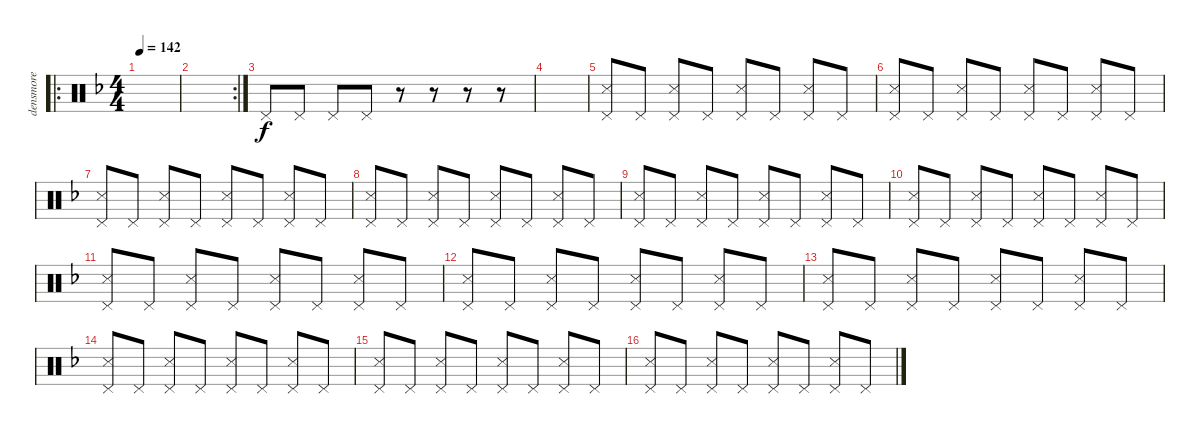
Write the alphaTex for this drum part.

\track ("densmore" "densmore") {instrument percussion}
\staff {score}
\articulation defaults
\ro
\ts (4 4)
\tempo 142
\clef neutral
\ks f
|
\rc 2
|
"Pedal Hi-Hat (hit)".8 "Pedal Hi-Hat (hit)".8 "Pedal Hi-Hat (hit)".8 "Pedal Hi-Hat (hit)".8 r.8 r.8 r.8 r.8 |
|
("Pedal Hi-Hat (hit)" "Snare (side stick) 3").8 "Pedal Hi-Hat (hit)".8 ("Pedal Hi-Hat (hit)" "Snare (side stick) 3").8 "Pedal Hi-Hat (hit)".8 ("Pedal Hi-Hat (hit)" "Snare (side stick) 3").8 "Pedal Hi-Hat (hit)".8 ("Pedal Hi-Hat (hit)" "Snare (side stick) 3").8 "Pedal Hi-Hat (hit)".8 |
("Pedal Hi-Hat (hit)" "Snare (side stick) 3").8 "Pedal Hi-Hat (hit)".8 ("Pedal Hi-Hat (hit)" "Snare (side stick) 3").8 "Pedal Hi-Hat (hit)".8 ("Pedal Hi-Hat (hit)" "Snare (side stick) 3").8 "Pedal Hi-Hat (hit)".8 ("Pedal Hi-Hat (hit)" "Snare (side stick) 3").8 "Pedal Hi-Hat (hit)".8 |
("Pedal Hi-Hat (hit)" "Snare (side stick) 3").8 "Pedal Hi-Hat (hit)".8 ("Pedal Hi-Hat (hit)" "Snare (side stick) 3").8 "Pedal Hi-Hat (hit)".8 ("Pedal Hi-Hat (hit)" "Snare (side stick) 3").8 "Pedal Hi-Hat (hit)".8 ("Pedal Hi-Hat (hit)" "Snare (side stick) 3").8 "Pedal Hi-Hat (hit)".8 |
("Pedal Hi-Hat (hit)" "Snare (side stick) 3").8 "Pedal Hi-Hat (hit)".8 ("Pedal Hi-Hat (hit)" "Snare (side stick) 3").8 "Pedal Hi-Hat (hit)".8 ("Pedal Hi-Hat (hit)" "Snare (side stick) 3").8 "Pedal Hi-Hat (hit)".8 ("Pedal Hi-Hat (hit)" "Snare (side stick) 3").8 "Pedal Hi-Hat (hit)".8 |
("Pedal Hi-Hat (hit)" "Snare (side stick) 3").8 "Pedal Hi-Hat (hit)".8 ("Pedal Hi-Hat (hit)" "Snare (side stick) 3").8 "Pedal Hi-Hat (hit)".8 ("Pedal Hi-Hat (hit)" "Snare (side stick) 3").8 "Pedal Hi-Hat (hit)".8 ("Pedal Hi-Hat (hit)" "Snare (side stick) 3").8 "Pedal Hi-Hat (hit)".8 |
("Pedal Hi-Hat (hit)" "Snare (side stick) 3").8 "Pedal Hi-Hat (hit)".8 ("Pedal Hi-Hat (hit)" "Snare (side stick) 3").8 "Pedal Hi-Hat (hit)".8 ("Pedal Hi-Hat (hit)" "Snare (side stick) 3").8 "Pedal Hi-Hat (hit)".8 ("Pedal Hi-Hat (hit)" "Snare (side stick) 3").8 "Pedal Hi-Hat (hit)".8 |
("Pedal Hi-Hat (hit)" "Snare (side stick) 3").8 "Pedal Hi-Hat (hit)".8 ("Pedal Hi-Hat (hit)" "Snare (side stick) 3").8 "Pedal Hi-Hat (hit)".8 ("Pedal Hi-Hat (hit)" "Snare (side stick) 3").8 "Pedal Hi-Hat (hit)".8 ("Pedal Hi-Hat (hit)" "Snare (side stick) 3").8 "Pedal Hi-Hat (hit)".8 |
("Pedal Hi-Hat (hit)" "Snare (side stick) 3").8 "Pedal Hi-Hat (hit)".8 ("Pedal Hi-Hat (hit)" "Snare (side stick) 3").8 "Pedal Hi-Hat (hit)".8 ("Pedal Hi-Hat (hit)" "Snare (side stick) 3").8 "Pedal Hi-Hat (hit)".8 ("Pedal Hi-Hat (hit)" "Snare (side stick) 3").8 "Pedal Hi-Hat (hit)".8 |
("Pedal Hi-Hat (hit)" "Snare (side stick) 3").8 "Pedal Hi-Hat (hit)".8 ("Pedal Hi-Hat (hit)" "Snare (side stick) 3").8 "Pedal Hi-Hat (hit)".8 ("Pedal Hi-Hat (hit)" "Snare (side stick) 3").8 "Pedal Hi-Hat (hit)".8 ("Pedal Hi-Hat (hit)" "Snare (side stick) 3").8 "Pedal Hi-Hat (hit)".8 |
("Pedal Hi-Hat (hit)" "Snare (side stick) 3").8 "Pedal Hi-Hat (hit)".8 ("Pedal Hi-Hat (hit)" "Snare (side stick) 3").8 "Pedal Hi-Hat (hit)".8 ("Pedal Hi-Hat (hit)" "Snare (side stick) 3").8 "Pedal Hi-Hat (hit)".8 ("Pedal Hi-Hat (hit)" "Snare (side stick) 3").8 "Pedal Hi-Hat (hit)".8 |
("Pedal Hi-Hat (hit)" "Snare (side stick) 3").8 "Pedal Hi-Hat (hit)".8 ("Pedal Hi-Hat (hit)" "Snare (side stick) 3").8 "Pedal Hi-Hat (hit)".8 ("Pedal Hi-Hat (hit)" "Snare (side stick) 3").8 "Pedal Hi-Hat (hit)".8 ("Pedal Hi-Hat (hit)" "Snare (side stick) 3").8 "Pedal Hi-Hat (hit)".8 |
("Pedal Hi-Hat (hit)" "Snare (side stick) 3").8 "Pedal Hi-Hat (hit)".8 ("Pedal Hi-Hat (hit)" "Snare (side stick) 3").8 "Pedal Hi-Hat (hit)".8 ("Pedal Hi-Hat (hit)" "Snare (side stick) 3").8 "Pedal Hi-Hat (hit)".8 ("Pedal Hi-Hat (hit)" "Snare (side stick) 3").8 "Pedal Hi-Hat (hit)".8
